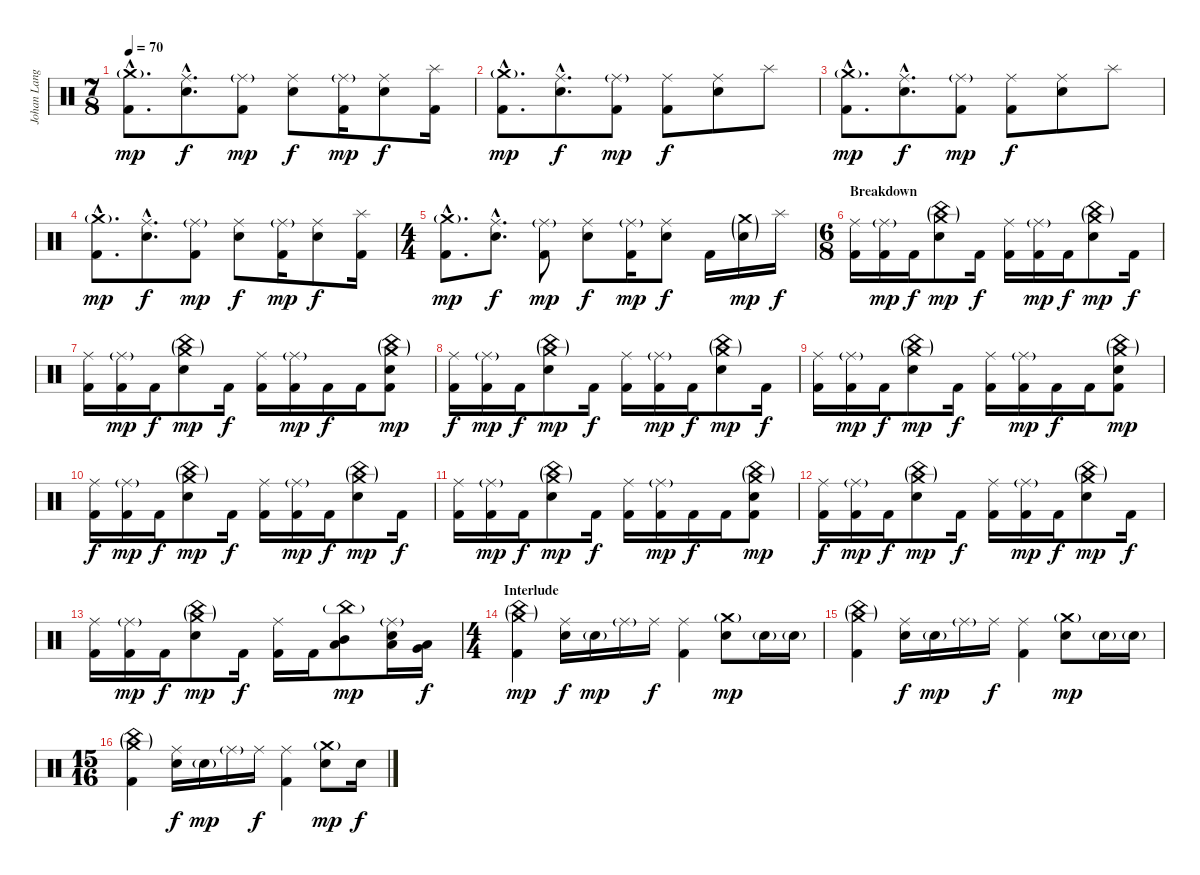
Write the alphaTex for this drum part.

\track ("Johan Langell" "Johan Lang") {instrument percussion}
\staff {score}
\articulation defaults
\ts (7 8)
\tempo 70
\clef neutral
\ks c
("Crash medium (hit)"{g hac} "Kick (hit) 2"{hac}).8{d dy mp} ("Ride (middle)"{hac} "Snare (hit) 2"{hac}).8{d dy f} ("Ride (middle)"{g} "Kick (hit) 2").8{dy mp} ("Ride (middle)" "Snare (hit) 2").8{dy f} ("Ride (middle)"{g} "Kick (hit) 2").16{dy mp} ("Ride (middle)" "Snare (hit) 2").8{dy f} ("Splash (hit)" "Kick (hit) 2").16 |
("Crash medium (hit)"{g hac} "Kick (hit) 2"{hac}).8{d dy mp} ("Ride (middle)"{hac} "Snare (hit) 2"{hac}).8{d dy f} ("Ride (middle)"{g} "Kick (hit) 2").8{dy mp} ("Ride (middle)" "Kick (hit) 2").8{dy f} ("Ride (middle)" "Snare (hit) 2").8 "Splash (hit)".8 |
("Crash medium (hit)"{g hac} "Kick (hit) 2"{hac}).8{d dy mp} ("Ride (middle)"{hac} "Snare (hit) 2"{hac}).8{d dy f} ("Ride (middle)"{g} "Kick (hit) 2").8{dy mp} ("Ride (middle)" "Kick (hit) 2").8{dy f} ("Ride (middle)" "Snare (hit) 2").8 "Splash (hit)".8 |
("Crash medium (hit)"{g hac} "Kick (hit) 2"{hac}).8{d dy mp} ("Ride (middle)"{hac} "Snare (hit) 2"{hac}).8{d dy f} ("Ride (middle)"{g} "Kick (hit) 2").8{dy mp} ("Ride (middle)" "Snare (hit) 2").8{dy f} ("Ride (middle)"{g} "Kick (hit) 2").16{dy mp} ("Ride (middle)" "Snare (hit) 2").8{dy f} ("Splash (hit)" "Kick (hit) 2").16 |
\ts (4 4)
("Crash medium (hit)"{g hac} "Kick (hit) 2"{hac}).8{d dy mp} ("Ride (middle)"{hac} "Snare (hit) 2"{hac}).8{d dy f} ("Ride (middle)"{g} "Kick (hit) 2").8{dy mp} ("Ride (middle)" "Snare (hit) 2").8{dy f} ("Ride (middle)"{g} "Kick (hit) 2").16{dy mp} ("Ride (middle)" "Snare (hit) 2").8{dy f} "Kick (hit) 2".16 ("Crash medium (hit)"{g} "Snare (hit) 2"{g}).16{dy mp} "Splash (hit)".16{dy f} |
\ts (6 8)
\section ("" "Breakdown")
("Ride (middle)" "Kick (hit) 2").16 ("Ride (middle)"{g} "Kick (hit) 2").16{dy mp} "Kick (hit) 2".16{dy f} ("China (hit)"{g} "Crash medium (hit)"{g} "Snare (hit) 2").8{dy mp} "Kick (hit) 2".16{dy f} ("Ride (middle)" "Kick (hit) 2").16 ("Ride (middle)"{g} "Kick (hit) 2").16{dy mp} "Kick (hit) 2".16{dy f} ("China (hit)"{g} "Crash medium (hit)"{g} "Snare (hit) 2").8{dy mp} "Kick (hit) 2".16{dy f} |
("Ride (middle)" "Kick (hit) 2").16 ("Ride (middle)"{g} "Kick (hit) 2").16{dy mp} "Kick (hit) 2".16{dy f} ("China (hit)"{g} "Crash medium (hit)"{g} "Snare (hit) 2").8{dy mp} "Kick (hit) 2".16{dy f} ("Ride (middle)" "Kick (hit) 2").16 ("Ride (middle)"{g} "Kick (hit) 2").16{dy mp} "Kick (hit) 2".16{dy f} "Kick (hit) 2".16 ("China (hit)"{g} "Crash medium (hit)"{g} "Snare (hit) 2" "Kick (hit) 2").8{dy mp} |
("Ride (middle)" "Kick (hit) 2").16{dy f} ("Ride (middle)"{g} "Kick (hit) 2").16{dy mp} "Kick (hit) 2".16{dy f} ("China (hit)"{g} "Crash medium (hit)"{g} "Snare (hit) 2").8{dy mp} "Kick (hit) 2".16{dy f} ("Ride (middle)" "Kick (hit) 2").16 ("Ride (middle)"{g} "Kick (hit) 2").16{dy mp} "Kick (hit) 2".16{dy f} ("China (hit)"{g} "Crash medium (hit)"{g} "Snare (hit) 2").8{dy mp} "Kick (hit) 2".16{dy f} |
("Ride (middle)" "Kick (hit) 2").16 ("Ride (middle)"{g} "Kick (hit) 2").16{dy mp} "Kick (hit) 2".16{dy f} ("China (hit)"{g} "Crash medium (hit)"{g} "Snare (hit) 2").8{dy mp} "Kick (hit) 2".16{dy f} ("Ride (middle)" "Kick (hit) 2").16 ("Ride (middle)"{g} "Kick (hit) 2").16{dy mp} "Kick (hit) 2".16{dy f} "Kick (hit) 2".16 ("China (hit)"{g} "Crash medium (hit)"{g} "Snare (hit) 2" "Kick (hit) 2").8{dy mp} |
("Ride (middle)" "Kick (hit) 2").16{dy f} ("Ride (middle)"{g} "Kick (hit) 2").16{dy mp} "Kick (hit) 2".16{dy f} ("China (hit)"{g} "Crash medium (hit)"{g} "Snare (hit) 2").8{dy mp} "Kick (hit) 2".16{dy f} ("Ride (middle)" "Kick (hit) 2").16 ("Ride (middle)"{g} "Kick (hit) 2").16{dy mp} "Kick (hit) 2".16{dy f} ("China (hit)"{g} "Crash medium (hit)"{g} "Snare (hit) 2").8{dy mp} "Kick (hit) 2".16{dy f} |
("Ride (middle)" "Kick (hit) 2").16 ("Ride (middle)"{g} "Kick (hit) 2").16{dy mp} "Kick (hit) 2".16{dy f} ("China (hit)"{g} "Crash medium (hit)"{g} "Snare (hit) 2").8{dy mp} "Kick (hit) 2".16{dy f} ("Ride (middle)" "Kick (hit) 2").16 ("Ride (middle)"{g} "Kick (hit) 2").16{dy mp} "Kick (hit) 2".16{dy f} "Kick (hit) 2".16 ("China (hit)"{g} "Crash medium (hit)"{g} "Snare (hit) 2" "Kick (hit) 2").8{dy mp} |
("Ride (middle)" "Kick (hit) 2").16{dy f} ("Ride (middle)"{g} "Kick (hit) 2").16{dy mp} "Kick (hit) 2".16{dy f} ("China (hit)"{g} "Crash medium (hit)"{g} "Snare (hit) 2").8{dy mp} "Kick (hit) 2".16{dy f} ("Ride (middle)" "Kick (hit) 2").16 ("Ride (middle)"{g} "Kick (hit) 2").16{dy mp} "Kick (hit) 2".16{dy f} ("China (hit)"{g} "Crash medium (hit)"{g} "Snare (hit) 2").8{dy mp} "Kick (hit) 2".16{dy f} |
("Ride (middle)" "Kick (hit) 2").16 ("Ride (middle)"{g} "Kick (hit) 2").16{dy mp} "Kick (hit) 2".16{dy f} ("China (hit)"{g} "Crash medium (hit)"{g} "Snare (hit) 2").8{dy mp} "Kick (hit) 2".16{dy f} ("Ride (middle)" "Kick (hit) 2").16 "Kick (hit) 2".16 ("China (hit)"{g} "Mid Tom (hit)" "Low Tom (hit)").8{dy mp} ("Ride (middle)"{g} "Low Tom (hit)" "Snare (hit) 2").16 ("Very Low Tom (hit)" "Low Floor Tom (hit)").16{dy f} |
\ts (4 4)
\section ("" "Interlude")
("China (hit)"{g} "Crash medium (hit)"{g} "Kick (hit) 2").4{dy mp} ("Ride (middle)" "Snare (hit) 2").16{dy f} "Snare (hit) 2"{g}.16{dy mp} "Ride (middle)"{g}.16 "Ride (middle)".16{dy f} ("Ride (middle)" "Kick (hit) 2").4 ("Crash medium (hit)"{g} "Snare (hit) 2").8{dy mp} "Snare (hit) 2"{g}.16 "Snare (hit) 2"{g}.16 |
("China (hit)"{g} "Crash medium (hit)"{g} "Kick (hit) 2").4 ("Ride (middle)" "Snare (hit) 2").16{dy f} "Snare (hit) 2"{g}.16{dy mp} "Ride (middle)"{g}.16 "Ride (middle)".16{dy f} ("Ride (middle)" "Kick (hit) 2").4 ("Crash medium (hit)"{g} "Snare (hit) 2").8{dy mp} "Snare (hit) 2"{g}.16 "Snare (hit) 2"{g}.16 |
\ts (15 16)
("China (hit)"{g} "Crash medium (hit)"{g} "Kick (hit) 2").4 ("Ride (middle)" "Snare (hit) 2").16{dy f} "Snare (hit) 2"{g}.16{dy mp} "Ride (middle)"{g}.16 "Ride (middle)".16{dy f} ("Ride (middle)" "Kick (hit) 2").4 ("Crash medium (hit)"{g} "Snare (hit) 2").8{dy mp} "Snare (hit) 2".16{dy f}
